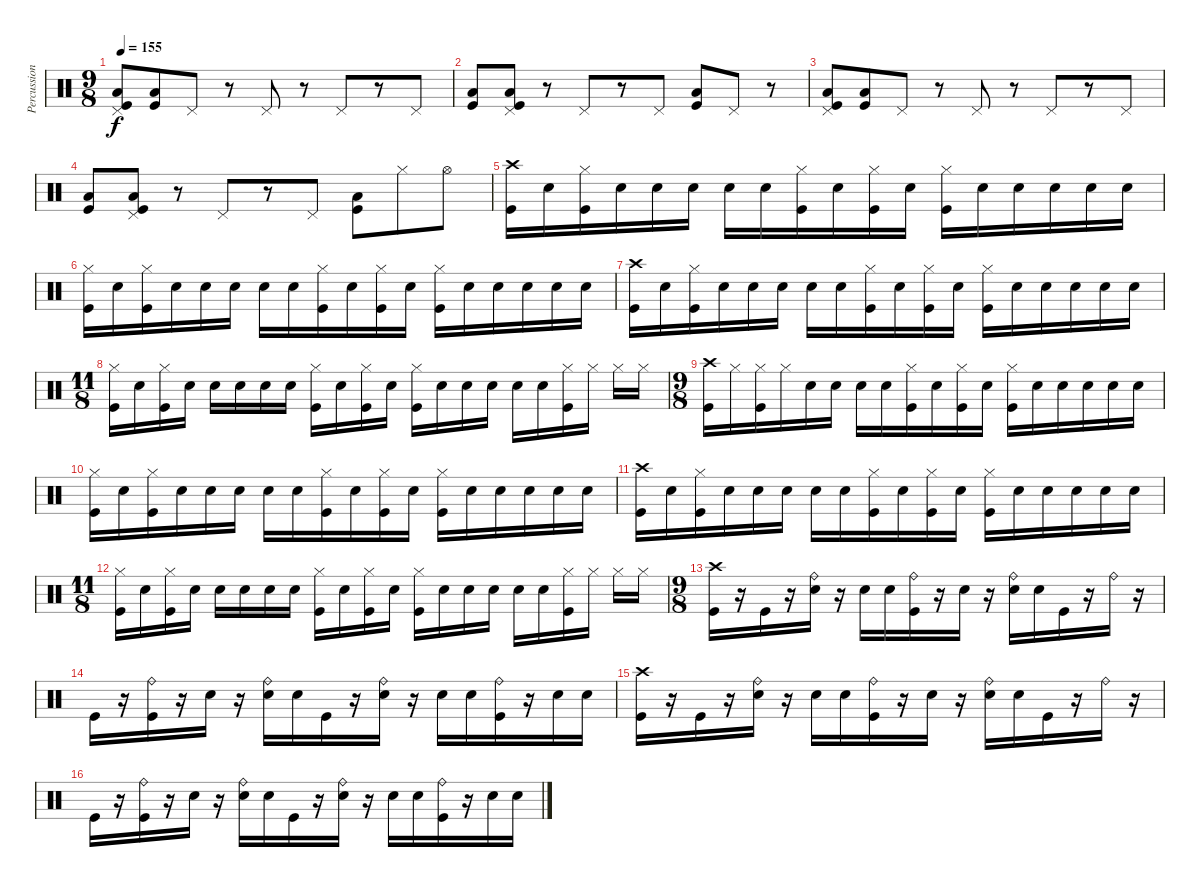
\track ("Percussion" "Percussion") {instrument percussion}
\staff {score}
\articulation defaults
\ts (9 8)
\tempo 155
\clef neutral
\ks c
("Kick (hit)" "Pedal Hi-Hat (hit)" "Low Floor Tom (hit)").8{dy f} ("Kick (hit)" "Low Floor Tom (hit)").8 "Pedal Hi-Hat (hit)".8 r.8 "Pedal Hi-Hat (hit)".8 r.8 "Pedal Hi-Hat (hit)".8 r.8 "Pedal Hi-Hat (hit)".8 |
("Kick (hit)" "Low Floor Tom (hit)").8 ("Kick (hit)" "Pedal Hi-Hat (hit)" "Low Floor Tom (hit)").8 r.8 "Pedal Hi-Hat (hit)".8 r.8 "Pedal Hi-Hat (hit)".8 ("Kick (hit)" "Low Floor Tom (hit)").8 "Pedal Hi-Hat (hit)".8 r.8 |
("Kick (hit)" "Pedal Hi-Hat (hit)" "Low Floor Tom (hit)").8 ("Kick (hit)" "Low Floor Tom (hit)").8 "Pedal Hi-Hat (hit)".8 r.8 "Pedal Hi-Hat (hit)".8 r.8 "Pedal Hi-Hat (hit)".8 r.8 "Pedal Hi-Hat (hit)".8 |
("Kick (hit)" "Low Floor Tom (hit)").8 ("Kick (hit)" "Pedal Hi-Hat (hit)" "Low Floor Tom (hit)").8 r.8 "Pedal Hi-Hat (hit)".8 r.8 "Pedal Hi-Hat (hit)".8 ("Kick (hit)" "Low Floor Tom (hit)").8 "Hi-Hat (closed)".8 "Hi-Hat (open)".8 |
("Kick (hit)" "Crash high (hit)").16 "Snare (hit) 2".16{volume 7} ("Hi-Hat (closed)" "Kick (hit)").16{volume 13} "Snare (hit) 2".16{volume 7} "Snare (hit) 2".16{volume 13} "Snare (hit) 2".16 "Snare (hit) 2".16 "Snare (hit) 2".16 ("Kick (hit)" "Hi-Hat (closed)").16 "Snare (hit) 2".16{volume 7} ("Kick (hit)" "Hi-Hat (closed)").16{volume 13} "Snare (hit) 2".16{volume 7} ("Kick (hit)" "Hi-Hat (closed)").16{volume 13} "Snare (hit) 2".16 "Snare (hit) 2".16{volume 13} "Snare (hit) 2".16 "Snare (hit) 2".16 "Snare (hit) 2".16 |
("Kick (hit)" "Hi-Hat (closed)").16 "Snare (hit) 2".16{volume 7} ("Hi-Hat (closed)" "Kick (hit)").16{volume 13} "Snare (hit) 2".16{volume 7} "Snare (hit) 2".16{volume 13} "Snare (hit) 2".16 "Snare (hit) 2".16 "Snare (hit) 2".16 ("Kick (hit)" "Hi-Hat (closed)").16 "Snare (hit) 2".16{volume 7} ("Kick (hit)" "Hi-Hat (closed)").16{volume 13} "Snare (hit) 2".16{volume 7} ("Kick (hit)" "Hi-Hat (closed)").16{volume 13} "Snare (hit) 2".16 "Snare (hit) 2".16{volume 13} "Snare (hit) 2".16 "Snare (hit) 2".16 "Snare (hit) 2".16 |
("Kick (hit)" "Crash high (hit)").16 "Snare (hit) 2".16{volume 7} ("Hi-Hat (closed)" "Kick (hit)").16{volume 13} "Snare (hit) 2".16{volume 7} "Snare (hit) 2".16{volume 13} "Snare (hit) 2".16 "Snare (hit) 2".16 "Snare (hit) 2".16 ("Kick (hit)" "Hi-Hat (closed)").16 "Snare (hit) 2".16{volume 7} ("Kick (hit)" "Hi-Hat (closed)").16{volume 13} "Snare (hit) 2".16{volume 7} ("Kick (hit)" "Hi-Hat (closed)").16{volume 13} "Snare (hit) 2".16 "Snare (hit) 2".16{volume 13} "Snare (hit) 2".16 "Snare (hit) 2".16 "Snare (hit) 2".16 |
\ts (11 8)
("Kick (hit)" "Hi-Hat (closed)").16 "Snare (hit) 2".16{volume 7} ("Hi-Hat (closed)" "Kick (hit)").16{volume 13} "Snare (hit) 2".16{volume 7} "Snare (hit) 2".16{volume 13} "Snare (hit) 2".16 "Snare (hit) 2".16 "Snare (hit) 2".16 ("Kick (hit)" "Hi-Hat (closed)").16 "Snare (hit) 2".16{volume 7} ("Kick (hit)" "Hi-Hat (closed)").16{volume 13} "Snare (hit) 2".16{volume 7} ("Kick (hit)" "Hi-Hat (closed)").16{volume 13} "Snare (hit) 2".16 "Snare (hit) 2".16{volume 13} "Snare (hit) 2".16 "Snare (hit) 2".16 "Snare (hit) 2".16 ("Hi-Hat (closed)" "Kick (hit)").16 "Hi-Hat (closed)".16 "Hi-Hat (closed)".16 "Hi-Hat (closed)".16 |
\ts (9 8)
("Kick (hit)" "Crash high (hit)").16 "Hi-Hat (closed)".16{volume 7} ("Hi-Hat (closed)" "Kick (hit)").16{volume 13} "Hi-Hat (closed)".16{volume 7} "Snare (hit) 2".16{volume 13} "Snare (hit) 2".16 "Snare (hit) 2".16 "Snare (hit) 2".16 ("Kick (hit)" "Hi-Hat (closed)").16 "Snare (hit) 2".16{volume 7} ("Kick (hit)" "Hi-Hat (closed)").16{volume 13} "Snare (hit) 2".16{volume 7} ("Kick (hit)" "Hi-Hat (closed)").16{volume 13} "Snare (hit) 2".16 "Snare (hit) 2".16{volume 13} "Snare (hit) 2".16 "Snare (hit) 2".16 "Snare (hit) 2".16 |
("Kick (hit)" "Hi-Hat (closed)").16 "Snare (hit) 2".16{volume 7} ("Hi-Hat (closed)" "Kick (hit)").16{volume 13} "Snare (hit) 2".16{volume 7} "Snare (hit) 2".16{volume 13} "Snare (hit) 2".16 "Snare (hit) 2".16 "Snare (hit) 2".16 ("Kick (hit)" "Hi-Hat (closed)").16 "Snare (hit) 2".16{volume 7} ("Kick (hit)" "Hi-Hat (closed)").16{volume 13} "Snare (hit) 2".16{volume 7} ("Kick (hit)" "Hi-Hat (closed)").16{volume 13} "Snare (hit) 2".16 "Snare (hit) 2".16{volume 13} "Snare (hit) 2".16 "Snare (hit) 2".16 "Snare (hit) 2".16 |
("Kick (hit)" "Crash high (hit)").16 "Snare (hit) 2".16{volume 7} ("Hi-Hat (closed)" "Kick (hit)").16{volume 13} "Snare (hit) 2".16{volume 7} "Snare (hit) 2".16{volume 13} "Snare (hit) 2".16 "Snare (hit) 2".16 "Snare (hit) 2".16 ("Kick (hit)" "Hi-Hat (closed)").16 "Snare (hit) 2".16{volume 7} ("Kick (hit)" "Hi-Hat (closed)").16{volume 13} "Snare (hit) 2".16{volume 7} ("Kick (hit)" "Hi-Hat (closed)").16{volume 13} "Snare (hit) 2".16 "Snare (hit) 2".16{volume 13} "Snare (hit) 2".16 "Snare (hit) 2".16 "Snare (hit) 2".16 |
\ts (11 8)
("Kick (hit)" "Hi-Hat (closed)").16 "Snare (hit) 2".16{volume 7} ("Hi-Hat (closed)" "Kick (hit)").16{volume 13} "Snare (hit) 2".16{volume 7} "Snare (hit) 2".16{volume 13} "Snare (hit) 2".16 "Snare (hit) 2".16 "Snare (hit) 2".16 ("Kick (hit)" "Hi-Hat (closed)").16 "Snare (hit) 2".16{volume 7} ("Kick (hit)" "Hi-Hat (closed)").16{volume 13} "Snare (hit) 2".16{volume 7} ("Kick (hit)" "Hi-Hat (closed)").16{volume 13} "Snare (hit) 2".16 "Snare (hit) 2".16{volume 13} "Snare (hit) 2".16 "Snare (hit) 2".16 "Snare (hit) 2".16 ("Hi-Hat (closed)" "Kick (hit)").16 "Hi-Hat (closed)".16 "Hi-Hat (closed)".16 "Hi-Hat (closed)".16 |
\ts (9 8)
("Kick (hit)" "Crash high (hit)").16 r.16 "Kick (hit)".16 r.16 ("Ride (bell)" "Snare (hit) 2").16 r.16 "Snare (hit) 2".16 "Snare (hit) 2".16 ("Ride (bell)" "Kick (hit)").16 r.16 "Snare (hit) 2".16 r.16 ("Ride (bell)" "Snare (hit) 2").16 "Snare (hit) 2".16 "Kick (hit)".16 r.16 "Ride (bell)".16 r.16 |
"Kick (hit)".16 r.16 ("Kick (hit)" "Ride (bell)").16 r.16 "Snare (hit) 2".16 r.16 ("Snare (hit) 2" "Ride (bell)").16 "Snare (hit) 2".16 "Kick (hit)".16 r.16 ("Snare (hit) 2" "Ride (bell)").16 r.16 "Snare (hit) 2".16 "Snare (hit) 2".16 ("Kick (hit)" "Ride (bell)").16 r.16 "Snare (hit) 2".16 "Snare (hit) 2".16 |
("Kick (hit)" "Crash high (hit)").16 r.16 "Kick (hit)".16 r.16 ("Ride (bell)" "Snare (hit) 2").16 r.16 "Snare (hit) 2".16 "Snare (hit) 2".16 ("Ride (bell)" "Kick (hit)").16 r.16 "Snare (hit) 2".16 r.16 ("Ride (bell)" "Snare (hit) 2").16 "Snare (hit) 2".16 "Kick (hit)".16 r.16 "Ride (bell)".16 r.16 |
"Kick (hit)".16 r.16 ("Kick (hit)" "Ride (bell)").16 r.16 "Snare (hit) 2".16 r.16 ("Snare (hit) 2" "Ride (bell)").16 "Snare (hit) 2".16 "Kick (hit)".16 r.16 ("Snare (hit) 2" "Ride (bell)").16 r.16 "Snare (hit) 2".16 "Snare (hit) 2".16 ("Kick (hit)" "Ride (bell)").16 r.16 "Snare (hit) 2".16 "Snare (hit) 2".16
